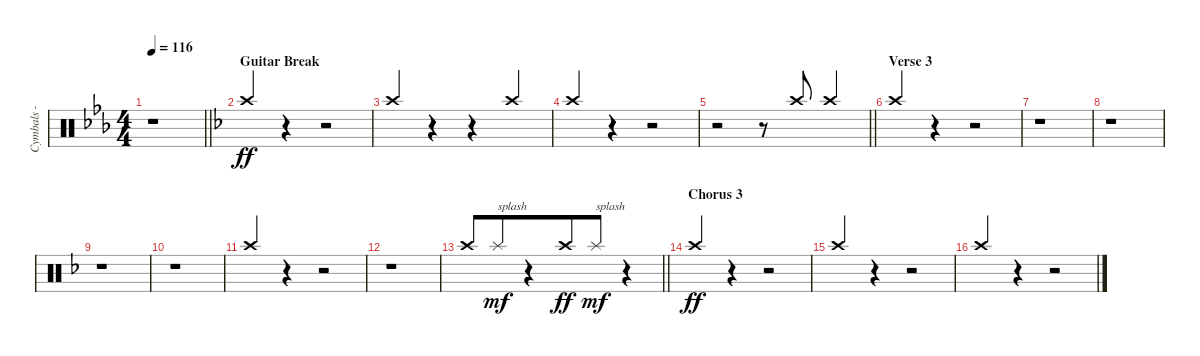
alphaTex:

\track ("Cymbals - crash" "Cymbals - ") {instrument percussion}
\staff {score}
\articulation defaults
\ts (4 4)
\tempo 116
\clef neutral
\barLineRight lightlight
\ks eb
r.1{dy ff} |
\section ("" "Guitar Break")
\ks f "Crash high (hit)".4{beam Up}
r.4 r.2 |
"Crash high (hit)".4{beam Up beam merge} r.4 r.4 "Crash high (hit)".4{beam Up} |
"Crash high (hit)".4{beam Up} r.4 r.2 |
\barLineRight lightlight
r.2 r.8 "Crash high (hit)".8{beam Up} "Crash high (hit)".4{beam Up} |
\section ("" "Verse 3")
"Crash high (hit)".4{beam Up} r.4 r.2 |
r.1 |
r.1 |
r.1 |
r.1 |
"Crash high (hit)".4{beam Up} r.4 r.2 |
r.1 |
\barLineRight lightlight "Crash high (hit)".8{beam Up} "Splash (hit)".8{txt "splash" dy mf beam Up beam merge}
r.4 "Crash high (hit)".8{dy ff beam Up} "Splash (hit)".8{txt "splash" dy mf beam Up} r.4 |
\section ("" "Chorus 3")
"Crash high (hit)".4{dy ff beam Up} r.4 r.2 |
"Crash high (hit)".4{beam Up} r.4 r.2 |
"Crash high (hit)".4{beam Up} r.4 r.2
